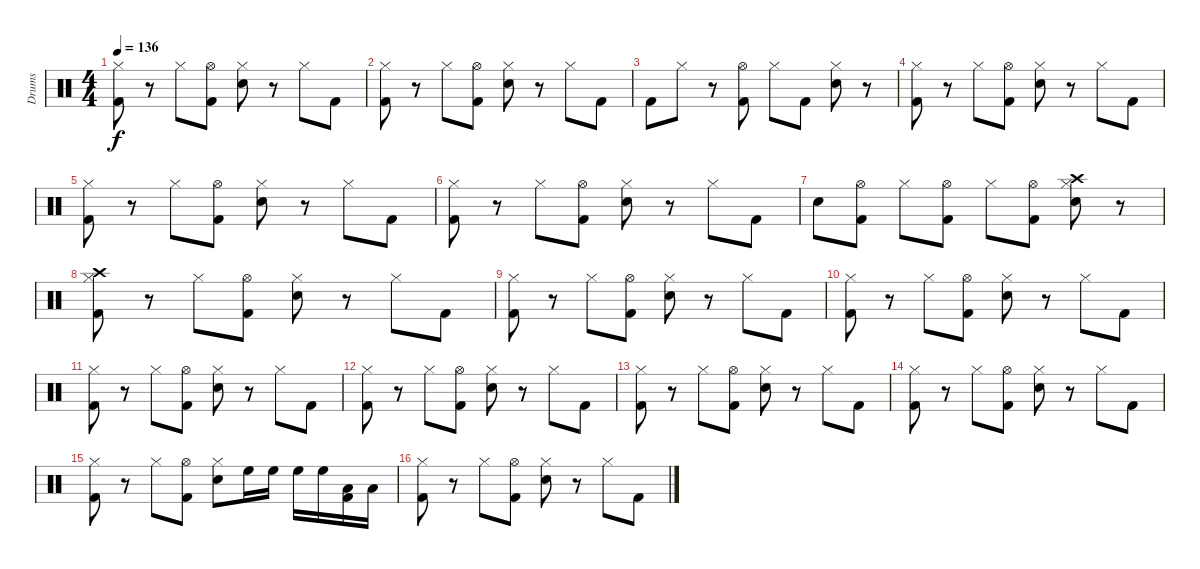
\track ("Drums" "Drums") {instrument percussion}
\staff {score}
\articulation defaults
\ts (4 4)
\tempo 136
\clef neutral
\ks c
("Kick (hit) 2" "Hi-Hat (closed)").8{dy f} r.8 "Hi-Hat (closed)".8 ("Kick (hit) 2" "Hi-Hat (open)").8 ("Snare (hit) 2" "Hi-Hat (closed)").8 r.8 "Hi-Hat (closed)".8 "Kick (hit) 2".8 |
("Kick (hit) 2" "Hi-Hat (closed)").8 r.8 "Hi-Hat (closed)".8 ("Kick (hit) 2" "Hi-Hat (open)").8 ("Snare (hit) 2" "Hi-Hat (closed)").8 r.8 "Hi-Hat (closed)".8 "Kick (hit) 2".8 |
"Kick (hit) 2".8 "Hi-Hat (closed)".8 r.8 ("Kick (hit) 2" "Hi-Hat (open)").8 "Hi-Hat (closed)".8 "Kick (hit) 2".8 ("Snare (hit) 2" "Hi-Hat (closed)").8 r.8 |
("Kick (hit) 2" "Hi-Hat (closed)").8 r.8 "Hi-Hat (closed)".8 ("Kick (hit) 2" "Hi-Hat (open)").8 ("Snare (hit) 2" "Hi-Hat (closed)").8 r.8 "Hi-Hat (closed)".8 "Kick (hit) 2".8 |
("Kick (hit) 2" "Hi-Hat (closed)").8 r.8 "Hi-Hat (closed)".8 ("Kick (hit) 2" "Hi-Hat (open)").8 ("Snare (hit) 2" "Hi-Hat (closed)").8 r.8 "Hi-Hat (closed)".8 "Kick (hit) 2".8 |
("Kick (hit) 2" "Hi-Hat (closed)").8 r.8 "Hi-Hat (closed)".8 ("Kick (hit) 2" "Hi-Hat (open)").8 ("Snare (hit) 2" "Hi-Hat (closed)").8 r.8 "Hi-Hat (closed)".8 "Kick (hit) 2".8 |
"Snare (hit) 2".8 ("Kick (hit) 2" "Hi-Hat (open)").8 "Hi-Hat (closed)".8 ("Kick (hit) 2" "Hi-Hat (open)").8 "Hi-Hat (closed)".8 ("Kick (hit) 2" "Hi-Hat (open)").8 ("Snare (hit) 2" "Hi-Hat (closed)" "Crash high (hit)").8 r.8 |
("Kick (hit) 2" "Hi-Hat (closed)" "Crash high (hit)").8 r.8 "Hi-Hat (closed)".8 ("Kick (hit) 2" "Hi-Hat (open)").8 ("Snare (hit) 2" "Hi-Hat (closed)").8 r.8 "Hi-Hat (closed)".8 "Kick (hit) 2".8 |
("Kick (hit) 2" "Hi-Hat (closed)").8 r.8 "Hi-Hat (closed)".8 ("Kick (hit) 2" "Hi-Hat (open)").8 ("Snare (hit) 2" "Hi-Hat (closed)").8 r.8 "Hi-Hat (closed)".8 "Kick (hit) 2".8 |
("Kick (hit) 2" "Hi-Hat (closed)").8 r.8 "Hi-Hat (closed)".8 ("Kick (hit) 2" "Hi-Hat (open)").8 ("Snare (hit) 2" "Hi-Hat (closed)").8 r.8 "Hi-Hat (closed)".8 "Kick (hit) 2".8 |
("Kick (hit) 2" "Hi-Hat (closed)").8 r.8 "Hi-Hat (closed)".8 ("Kick (hit) 2" "Hi-Hat (open)").8 ("Snare (hit) 2" "Hi-Hat (closed)").8 r.8 "Hi-Hat (closed)".8 "Kick (hit) 2".8 |
("Kick (hit) 2" "Hi-Hat (closed)").8 r.8 "Hi-Hat (closed)".8 ("Kick (hit) 2" "Hi-Hat (open)").8 ("Snare (hit) 2" "Hi-Hat (closed)").8 r.8 "Hi-Hat (closed)".8 "Kick (hit) 2".8 |
("Kick (hit) 2" "Hi-Hat (closed)").8 r.8 "Hi-Hat (closed)".8 ("Kick (hit) 2" "Hi-Hat (open)").8 ("Snare (hit) 2" "Hi-Hat (closed)").8 r.8 "Hi-Hat (closed)".8 "Kick (hit) 2".8 |
("Kick (hit) 2" "Hi-Hat (closed)").8 r.8 "Hi-Hat (closed)".8 ("Kick (hit) 2" "Hi-Hat (open)").8 ("Snare (hit) 2" "Hi-Hat (closed)").8 r.8 "Hi-Hat (closed)".8 "Kick (hit) 2".8 |
("Kick (hit) 2" "Hi-Hat (closed)").8 r.8 "Hi-Hat (closed)".8 ("Kick (hit) 2" "Hi-Hat (open)").8 ("Snare (hit) 2" "Hi-Hat (closed)").8 "High Floor Tom (hit)".16 "High Floor Tom (hit)".16 "High Floor Tom (hit)".16 "High Floor Tom (hit)".16 ("Kick (hit) 2" "Low Tom (hit)").16 "Low Tom (hit)".16 |
("Kick (hit) 2" "Hi-Hat (closed)").8 r.8 "Hi-Hat (closed)".8 ("Kick (hit) 2" "Hi-Hat (open)").8 ("Snare (hit) 2" "Hi-Hat (closed)").8 r.8 "Hi-Hat (closed)".8 "Kick (hit) 2".8
